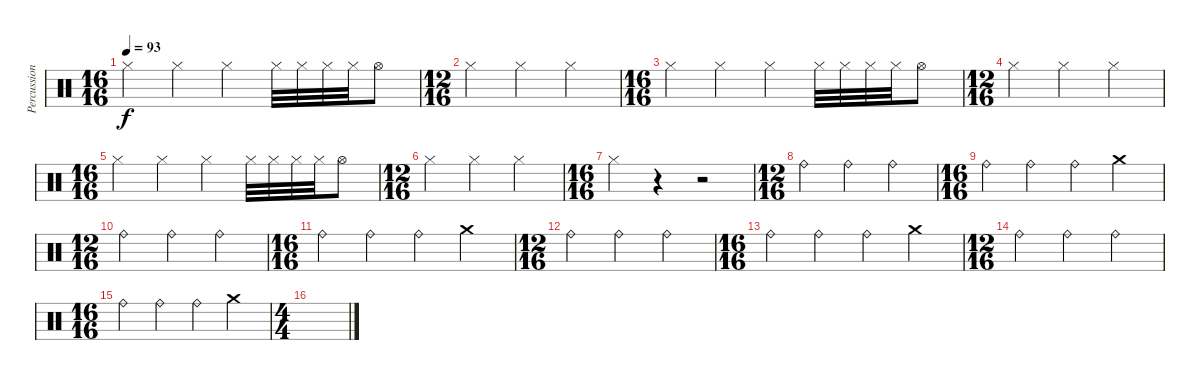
\track ("Percussion" "Percussion") {instrument percussion}
\staff {score}
\articulation defaults
\ts (16 16)
\tempo 93
\clef neutral
\ks c "Hi-Hat (closed)".4{dy f} "Hi-Hat (closed)".4 "Hi-Hat (closed)".4 "Hi-Hat (closed)".32 "Hi-Hat (closed)".32 "Hi-Hat (closed)".32 "Hi-Hat (closed)".32 "Hi-Hat (open)".8
|
\ts (12 16)
"Hi-Hat (closed)".4 "Hi-Hat (closed)".4 "Hi-Hat (closed)".4 |
\ts (16 16)
"Hi-Hat (closed)".4 "Hi-Hat (closed)".4 "Hi-Hat (closed)".4 "Hi-Hat (closed)".32 "Hi-Hat (closed)".32 "Hi-Hat (closed)".32 "Hi-Hat (closed)".32 "Hi-Hat (open)".8 |
\ts (12 16)
"Hi-Hat (closed)".4 "Hi-Hat (closed)".4 "Hi-Hat (closed)".4 |
\ts (16 16)
"Hi-Hat (closed)".4 "Hi-Hat (closed)".4 "Hi-Hat (closed)".4 "Hi-Hat (closed)".32 "Hi-Hat (closed)".32 "Hi-Hat (closed)".32 "Hi-Hat (closed)".32 "Hi-Hat (open)".8 |
\ts (12 16)
"Hi-Hat (closed)".4 "Hi-Hat (closed)".4 "Hi-Hat (closed)".4 |
\ts (16 16)
"Hi-Hat (closed)".4 r.4 r.2 |
\ts (12 16)
"Ride (bell)".4 "Ride (bell)".4 "Ride (bell)".4 |
\ts (16 16)
"Ride (bell)".4 "Ride (bell)".4 "Ride (bell)".4 "Crash medium (hit)".4 |
\ts (12 16)
"Ride (bell)".4 "Ride (bell)".4 "Ride (bell)".4 |
\ts (16 16)
"Ride (bell)".4 "Ride (bell)".4 "Ride (bell)".4 "Crash medium (hit)".4 |
\ts (12 16)
"Ride (bell)".4 "Ride (bell)".4 "Ride (bell)".4 |
\ts (16 16)
"Ride (bell)".4 "Ride (bell)".4 "Ride (bell)".4 "Crash medium (hit)".4 |
\ts (12 16)
"Ride (bell)".4 "Ride (bell)".4 "Ride (bell)".4 |
\ts (16 16)
"Ride (bell)".4 "Ride (bell)".4 "Ride (bell)".4 "Crash medium (hit)".4 |
\ts (4 4)
